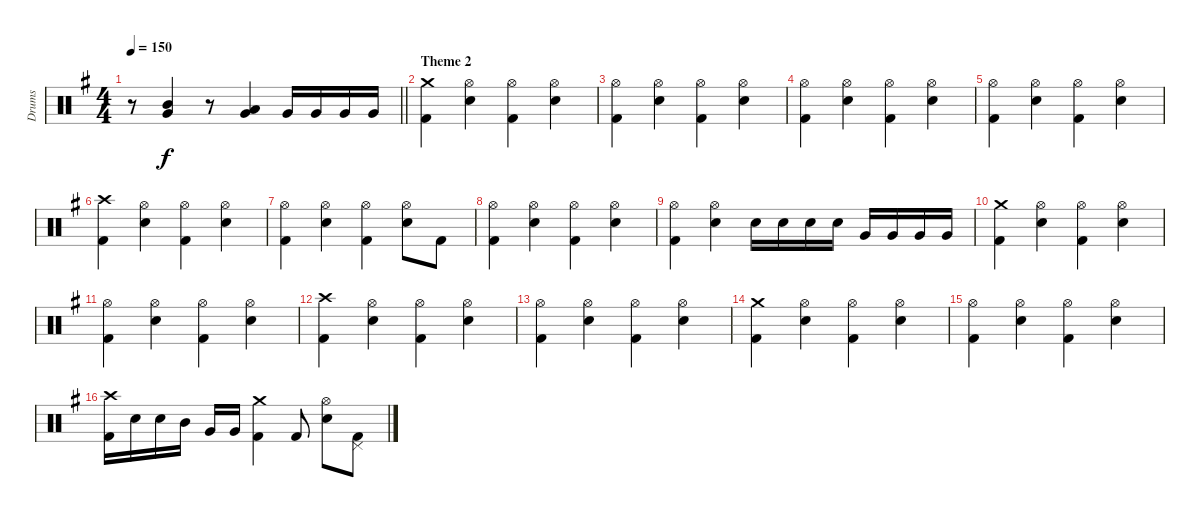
\track ("Drums" "Drums") {instrument percussion}
\staff {score}
\articulation defaults
\ts (4 4)
\tempo 150
\clef neutral
\barLineRight lightlight
\ks eminor
r.8{dy f} ("Mid Tom (hit)" "Very Low Tom (hit)").4 r.8 ("Low Tom (hit)" "Very Low Tom (hit)").4 "Very Low Tom (hit)".16 "Very Low Tom (hit)".16 "Very Low Tom (hit)".16 "Very Low Tom (hit)".16 |
\section ("" "Theme 2")
("Crash medium (hit)" "Kick (hit) 2").4 ("Hi-Hat (open)" "Electric Snare (hit)").4 ("Hi-Hat (open)" "Kick (hit) 2").4 ("Hi-Hat (open)" "Electric Snare (hit)").4 |
("Hi-Hat (open)" "Kick (hit) 2").4 ("Hi-Hat (open)" "Electric Snare (hit)").4 ("Hi-Hat (open)" "Kick (hit) 2").4 ("Hi-Hat (open)" "Electric Snare (hit)").4 |
("Hi-Hat (open)" "Kick (hit) 2").4 ("Hi-Hat (open)" "Electric Snare (hit)").4 ("Hi-Hat (open)" "Kick (hit) 2").4 ("Hi-Hat (open)" "Electric Snare (hit)").4 |
("Hi-Hat (open)" "Kick (hit) 2").4 ("Hi-Hat (open)" "Electric Snare (hit)").4 ("Hi-Hat (open)" "Kick (hit) 2").4 ("Hi-Hat (open)" "Electric Snare (hit)").4 |
("Crash high (hit)" "Kick (hit) 2").4 ("Hi-Hat (open)" "Electric Snare (hit)").4 ("Hi-Hat (open)" "Kick (hit) 2").4 ("Hi-Hat (open)" "Electric Snare (hit)").4 |
("Hi-Hat (open)" "Kick (hit) 2").4 ("Hi-Hat (open)" "Electric Snare (hit)").4 ("Hi-Hat (open)" "Kick (hit) 2").4 ("Hi-Hat (open)" "Electric Snare (hit)").8 "Kick (hit) 2".8 |
("Hi-Hat (open)" "Kick (hit) 2").4 ("Hi-Hat (open)" "Electric Snare (hit)").4 ("Hi-Hat (open)" "Kick (hit) 2").4 ("Hi-Hat (open)" "Electric Snare (hit)").4 |
("Hi-Hat (open)" "Kick (hit) 2").4 ("Hi-Hat (open)" "Electric Snare (hit)").4 "Electric Snare (hit)".16 "Electric Snare (hit)".16 "Electric Snare (hit)".16 "Electric Snare (hit)".16 "Very Low Tom (hit)".16 "Very Low Tom (hit)".16 "Very Low Tom (hit)".16 "Very Low Tom (hit)".16 |
("Crash medium (hit)" "Kick (hit) 2").4 ("Hi-Hat (open)" "Electric Snare (hit)").4 ("Hi-Hat (open)" "Kick (hit) 2").4 ("Hi-Hat (open)" "Electric Snare (hit)").4 |
("Hi-Hat (open)" "Kick (hit) 2").4 ("Hi-Hat (open)" "Electric Snare (hit)").4 ("Hi-Hat (open)" "Kick (hit) 2").4 ("Hi-Hat (open)" "Electric Snare (hit)").4 |
("Crash high (hit)" "Kick (hit) 2").4 ("Hi-Hat (open)" "Electric Snare (hit)").4 ("Hi-Hat (open)" "Kick (hit) 2").4 ("Hi-Hat (open)" "Electric Snare (hit)").4 |
("Hi-Hat (open)" "Kick (hit) 2").4 ("Hi-Hat (open)" "Electric Snare (hit)").4 ("Hi-Hat (open)" "Kick (hit) 2").4 ("Hi-Hat (open)" "Electric Snare (hit)").4 |
("Crash medium (hit)" "Kick (hit) 2").4 ("Hi-Hat (open)" "Electric Snare (hit)").4 ("Hi-Hat (open)" "Kick (hit) 2").4 ("Hi-Hat (open)" "Electric Snare (hit)").4 |
("Hi-Hat (open)" "Kick (hit) 2").4 ("Hi-Hat (open)" "Electric Snare (hit)").4 ("Hi-Hat (open)" "Kick (hit) 2").4 ("Hi-Hat (open)" "Electric Snare (hit)").4 |
("Crash high (hit)" "Kick (hit) 2").16 "Electric Snare (hit)".16 "Electric Snare (hit)".16 "Mid Tom (hit)".16 "Very Low Tom (hit)".16 "Very Low Tom (hit)".16 ("Crash medium (hit)" "Kick (hit) 2").4 "Kick (hit) 2".8 ("Hi-Hat (open)" "Electric Snare (hit)").8 ("Pedal Hi-Hat (hit)" "Kick (hit) 2").8
